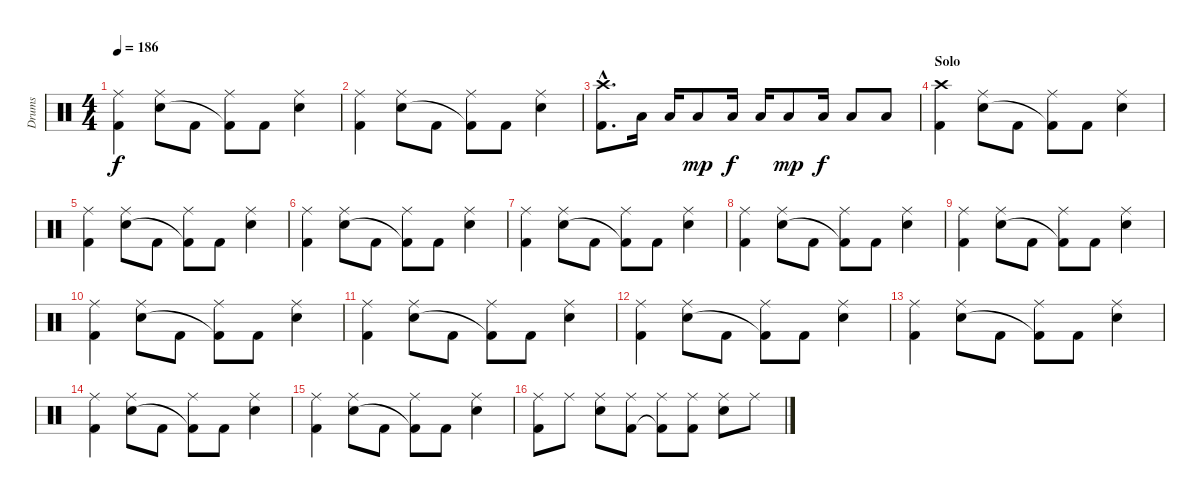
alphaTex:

\track ("Drums" "Drums") {instrument percussion}
\staff {score}
\articulation defaults
\ts (4 4)
\tempo 186
\clef neutral
\ks c
("Ride (middle)" "Kick (hit) 2").4{dy f} ("Ride (middle)" "Electric Snare (hit)").8 "Kick (hit) 2".8 ("Ride (middle)" "Kick (hit) 2"{t}).8 "Kick (hit) 2".8 ("Ride (middle)" "Electric Snare (hit)").4 |
("Ride (middle)" "Kick (hit) 2").4 ("Ride (middle)" "Electric Snare (hit)").8 "Kick (hit) 2".8 ("Ride (middle)" "Kick (hit) 2"{t}).8 "Kick (hit) 2".8 ("Ride (middle)" "Electric Snare (hit)").4 |
("Crash high (hit)"{hac} "Kick (hit) 2"{hac}).8{d} "Low Tom (hit)".16 "Low Tom (hit)".16 "Low Tom (hit)".8{dy mp} "Low Tom (hit)".16{dy f} "Low Tom (hit)".16 "Low Tom (hit)".8{dy mp} "Low Tom (hit)".16{dy f} "Low Tom (hit)".8 "Low Tom (hit)".8 |
\section ("" "Solo")
("Crash high (hit)" "Kick (hit) 2").4 ("Ride (middle)" "Electric Snare (hit)").8 "Kick (hit) 2".8 ("Ride (middle)" "Kick (hit) 2"{t}).8 "Kick (hit) 2".8 ("Ride (middle)" "Electric Snare (hit)").4 |
("Ride (middle)" "Kick (hit) 2").4 ("Ride (middle)" "Electric Snare (hit)").8 "Kick (hit) 2".8 ("Ride (middle)" "Kick (hit) 2"{t}).8 "Kick (hit) 2".8 ("Ride (middle)" "Electric Snare (hit)").4 |
("Ride (middle)" "Kick (hit) 2").4 ("Ride (middle)" "Electric Snare (hit)").8 "Kick (hit) 2".8 ("Ride (middle)" "Kick (hit) 2"{t}).8 "Kick (hit) 2".8 ("Ride (middle)" "Electric Snare (hit)").4 |
("Ride (middle)" "Kick (hit) 2").4 ("Ride (middle)" "Electric Snare (hit)").8 "Kick (hit) 2".8 ("Ride (middle)" "Kick (hit) 2"{t}).8 "Kick (hit) 2".8 ("Ride (middle)" "Electric Snare (hit)").4 |
("Ride (middle)" "Kick (hit) 2").4 ("Ride (middle)" "Electric Snare (hit)").8 "Kick (hit) 2".8 ("Ride (middle)" "Kick (hit) 2"{t}).8 "Kick (hit) 2".8 ("Ride (middle)" "Electric Snare (hit)").4 |
("Ride (middle)" "Kick (hit) 2").4 ("Ride (middle)" "Electric Snare (hit)").8 "Kick (hit) 2".8 ("Ride (middle)" "Kick (hit) 2"{t}).8 "Kick (hit) 2".8 ("Ride (middle)" "Electric Snare (hit)").4 |
("Ride (middle)" "Kick (hit) 2").4 ("Ride (middle)" "Electric Snare (hit)").8 "Kick (hit) 2".8 ("Ride (middle)" "Kick (hit) 2"{t}).8 "Kick (hit) 2".8 ("Ride (middle)" "Electric Snare (hit)").4 |
("Ride (middle)" "Kick (hit) 2").4 ("Ride (middle)" "Electric Snare (hit)").8 "Kick (hit) 2".8 ("Ride (middle)" "Kick (hit) 2"{t}).8 "Kick (hit) 2".8 ("Ride (middle)" "Electric Snare (hit)").4 |
("Ride (middle)" "Kick (hit) 2").4 ("Ride (middle)" "Electric Snare (hit)").8 "Kick (hit) 2".8 ("Ride (middle)" "Kick (hit) 2"{t}).8 "Kick (hit) 2".8 ("Ride (middle)" "Electric Snare (hit)").4 |
("Ride (middle)" "Kick (hit) 2").4 ("Ride (middle)" "Electric Snare (hit)").8 "Kick (hit) 2".8 ("Ride (middle)" "Kick (hit) 2"{t}).8 "Kick (hit) 2".8 ("Ride (middle)" "Electric Snare (hit)").4 |
("Ride (middle)" "Kick (hit) 2").4 ("Ride (middle)" "Electric Snare (hit)").8 "Kick (hit) 2".8 ("Ride (middle)" "Kick (hit) 2"{t}).8 "Kick (hit) 2".8 ("Ride (middle)" "Electric Snare (hit)").4 |
("Ride (middle)" "Kick (hit) 2").4 ("Ride (middle)" "Electric Snare (hit)").8 "Kick (hit) 2".8 ("Ride (middle)" "Kick (hit) 2"{t}).8 "Kick (hit) 2".8 ("Ride (middle)" "Electric Snare (hit)").4 |
("Ride (middle)" "Kick (hit) 2").8 "Ride (middle)".8 ("Ride (middle)" "Electric Snare (hit)").8 ("Ride (middle)" "Kick (hit) 2").8 ("Ride (middle)" "Kick (hit) 2"{t}).8 ("Ride (middle)" "Kick (hit) 2").8 ("Ride (middle)" "Electric Snare (hit)").8 "Ride (middle)".8
